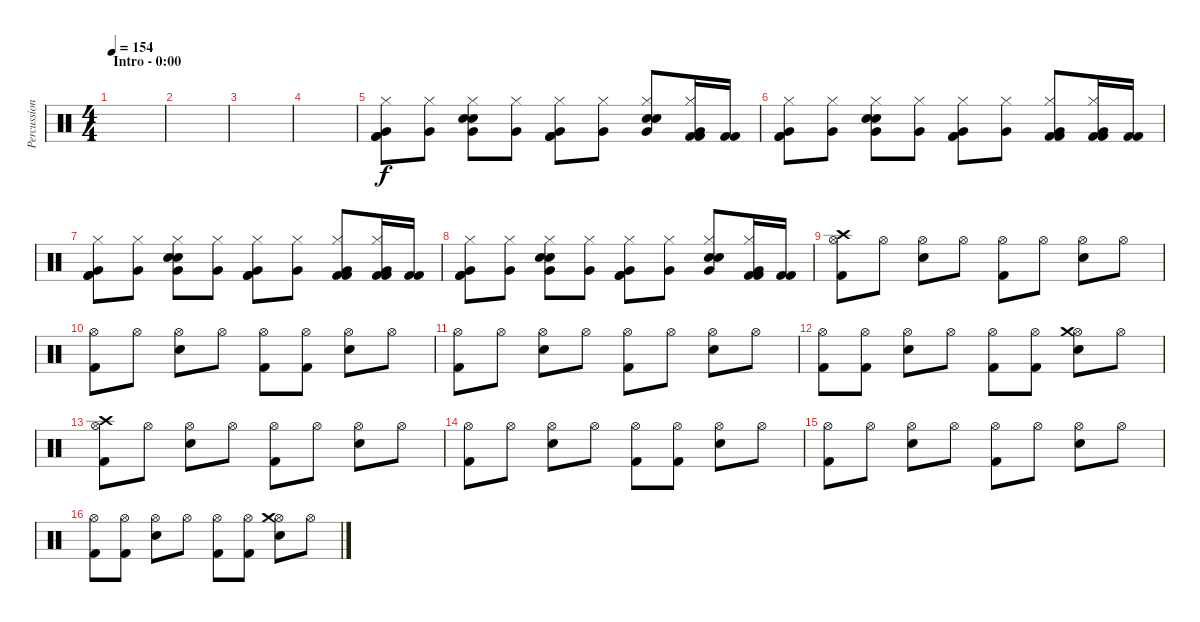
\track ("Percussioni" "Percussion") {instrument percussion}
\staff {score}
\articulation defaults
\ts (4 4)
\section ("" "Intro - 0:00")
\tempo 154
\clef neutral
\ks c
|
|
|
|
("Very Low Tom (hit)" "Hi-Hat (closed)" "Kick (hit) 2" "Kick (hit) 2").8{volume 10} ("Very Low Tom (hit)" "Hi-Hat (closed)").8 ("Very Low Tom (hit)" "Hi-Hat (closed)" "Electric Snare (hit)" "Electric Snare (hit)").8 ("Very Low Tom (hit)" "Hi-Hat (closed)").8 ("Very Low Tom (hit)" "Hi-Hat (closed)" "Kick (hit) 2" "Kick (hit) 2").8 ("Very Low Tom (hit)" "Hi-Hat (closed)").8 ("Very Low Tom (hit)" "Hi-Hat (closed)" "Electric Snare (hit)" "Electric Snare (hit)").8 ("Very Low Tom (hit)" "Hi-Hat (closed)" "Kick (hit) 2" "Kick (hit) 2").16 ("Kick (hit) 2" "Kick (hit) 2").16 |
("Very Low Tom (hit)" "Hi-Hat (closed)" "Kick (hit) 2" "Kick (hit) 2").8 ("Very Low Tom (hit)" "Hi-Hat (closed)").8 ("Very Low Tom (hit)" "Hi-Hat (closed)" "Electric Snare (hit)" "Electric Snare (hit)").8 ("Very Low Tom (hit)" "Hi-Hat (closed)").8 ("Very Low Tom (hit)" "Hi-Hat (closed)" "Kick (hit) 2" "Kick (hit) 2").8 ("Very Low Tom (hit)" "Hi-Hat (closed)").8 ("Very Low Tom (hit)" "Hi-Hat (closed)" "Kick (hit) 2" "Kick (hit) 2").8 ("Very Low Tom (hit)" "Hi-Hat (closed)" "Kick (hit) 2" "Kick (hit) 2").16 ("Kick (hit) 2" "Kick (hit) 2").16 |
("Very Low Tom (hit)" "Hi-Hat (closed)" "Kick (hit) 2" "Kick (hit) 2").8 ("Very Low Tom (hit)" "Hi-Hat (closed)").8 ("Very Low Tom (hit)" "Hi-Hat (closed)" "Electric Snare (hit)" "Electric Snare (hit)").8 ("Very Low Tom (hit)" "Hi-Hat (closed)").8 ("Very Low Tom (hit)" "Hi-Hat (closed)" "Kick (hit) 2" "Kick (hit) 2").8 ("Very Low Tom (hit)" "Hi-Hat (closed)").8 ("Very Low Tom (hit)" "Hi-Hat (closed)" "Kick (hit) 2" "Kick (hit) 2").8 ("Very Low Tom (hit)" "Hi-Hat (closed)" "Kick (hit) 2" "Kick (hit) 2").16 ("Kick (hit) 2" "Kick (hit) 2").16 |
("Very Low Tom (hit)" "Hi-Hat (closed)" "Kick (hit) 2" "Kick (hit) 2").8 ("Very Low Tom (hit)" "Hi-Hat (closed)").8 ("Very Low Tom (hit)" "Hi-Hat (closed)" "Electric Snare (hit)" "Electric Snare (hit)").8 ("Very Low Tom (hit)" "Hi-Hat (closed)").8 ("Very Low Tom (hit)" "Hi-Hat (closed)" "Kick (hit) 2" "Kick (hit) 2").8 ("Very Low Tom (hit)" "Hi-Hat (closed)").8 ("Very Low Tom (hit)" "Hi-Hat (closed)" "Electric Snare (hit)" "Electric Snare (hit)").8 ("Very Low Tom (hit)" "Hi-Hat (closed)" "Kick (hit) 2" "Kick (hit) 2").16 ("Kick (hit) 2" "Kick (hit) 2").16 |
("Hi-Hat (open)" "Kick (hit) 2" "Crash high (hit)").8{volume 16} "Hi-Hat (open)".8 ("Hi-Hat (open)" "Electric Snare (hit)").8 "Hi-Hat (open)".8 ("Hi-Hat (open)" "Kick (hit) 2").8 "Hi-Hat (open)".8 ("Hi-Hat (open)" "Electric Snare (hit)").8 "Hi-Hat (open)".8 |
("Hi-Hat (open)" "Kick (hit) 2").8 "Hi-Hat (open)".8 ("Hi-Hat (open)" "Electric Snare (hit)").8 "Hi-Hat (open)".8 ("Hi-Hat (open)" "Kick (hit) 2").8 ("Hi-Hat (open)" "Kick (hit) 2").8 ("Hi-Hat (open)" "Electric Snare (hit)").8 "Hi-Hat (open)".8 |
("Hi-Hat (open)" "Kick (hit) 2").8 "Hi-Hat (open)".8 ("Hi-Hat (open)" "Electric Snare (hit)").8 "Hi-Hat (open)".8 ("Hi-Hat (open)" "Kick (hit) 2").8 "Hi-Hat (open)".8 ("Hi-Hat (open)" "Electric Snare (hit)").8 "Hi-Hat (open)".8 |
("Hi-Hat (open)" "Kick (hit) 2").8 ("Hi-Hat (open)" "Kick (hit) 2").8 ("Hi-Hat (open)" "Electric Snare (hit)").8 "Hi-Hat (open)".8 ("Hi-Hat (open)" "Kick (hit) 2").8 ("Hi-Hat (open)" "Kick (hit) 2").8 ("Hi-Hat (open)" "Electric Snare (hit)" "Crash medium (hit)").8 "Hi-Hat (open)".8 |
("Hi-Hat (open)" "Kick (hit) 2" "Crash high (hit)").8{volume 16} "Hi-Hat (open)".8 ("Hi-Hat (open)" "Electric Snare (hit)").8 "Hi-Hat (open)".8 ("Hi-Hat (open)" "Kick (hit) 2").8 "Hi-Hat (open)".8 ("Hi-Hat (open)" "Electric Snare (hit)").8 "Hi-Hat (open)".8 |
("Hi-Hat (open)" "Kick (hit) 2").8 "Hi-Hat (open)".8 ("Hi-Hat (open)" "Electric Snare (hit)").8 "Hi-Hat (open)".8 ("Hi-Hat (open)" "Kick (hit) 2").8 ("Hi-Hat (open)" "Kick (hit) 2").8 ("Hi-Hat (open)" "Electric Snare (hit)").8 "Hi-Hat (open)".8 |
("Hi-Hat (open)" "Kick (hit) 2").8 "Hi-Hat (open)".8 ("Hi-Hat (open)" "Electric Snare (hit)").8 "Hi-Hat (open)".8 ("Hi-Hat (open)" "Kick (hit) 2").8 "Hi-Hat (open)".8 ("Hi-Hat (open)" "Electric Snare (hit)").8 "Hi-Hat (open)".8 |
("Hi-Hat (open)" "Kick (hit) 2").8 ("Hi-Hat (open)" "Kick (hit) 2").8 ("Hi-Hat (open)" "Electric Snare (hit)").8 "Hi-Hat (open)".8 ("Hi-Hat (open)" "Kick (hit) 2").8 ("Hi-Hat (open)" "Kick (hit) 2").8 ("Hi-Hat (open)" "Electric Snare (hit)" "Crash medium (hit)").8 "Hi-Hat (open)".8
